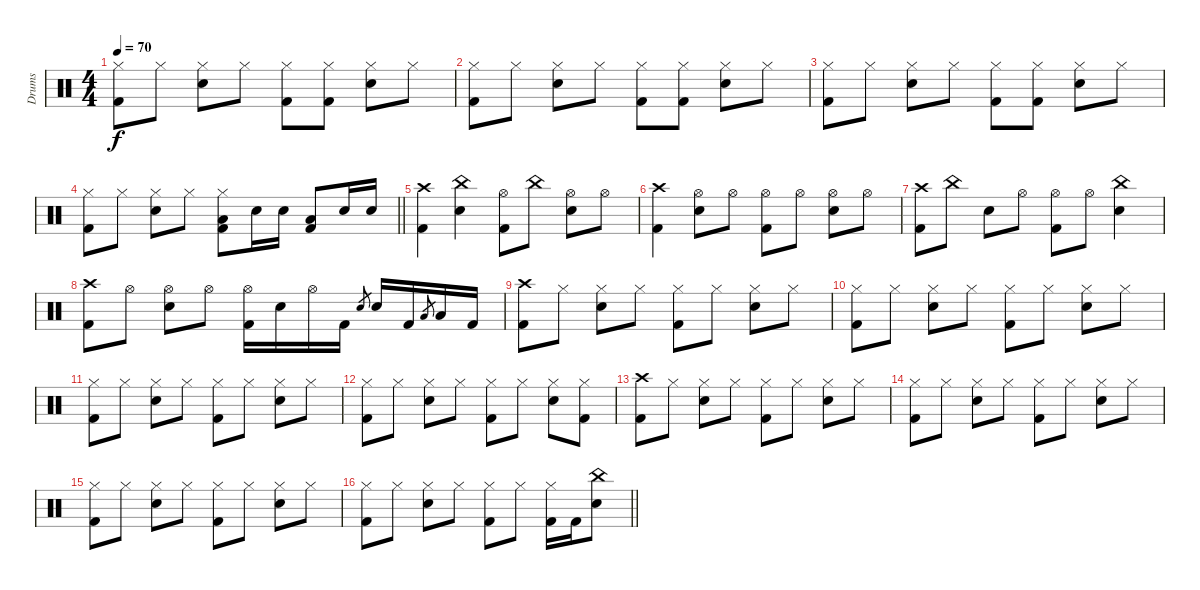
\track ("Drums" "Drums") {instrument percussion}
\staff {score}
\articulation defaults
\ts (4 4)
\tempo 70
\clef neutral
\ks c
("Hi-Hat (closed)" "Kick (hit) 2").8{dy f} "Hi-Hat (closed)".8 ("Hi-Hat (closed)" "Electric Snare (hit)").8 "Hi-Hat (closed)".8 ("Hi-Hat (closed)" "Kick (hit) 2").8 ("Hi-Hat (closed)" "Kick (hit) 2").8 ("Hi-Hat (closed)" "Electric Snare (hit)").8 "Hi-Hat (closed)".8 |
("Hi-Hat (closed)" "Kick (hit) 2").8 "Hi-Hat (closed)".8 ("Hi-Hat (closed)" "Electric Snare (hit)").8 "Hi-Hat (closed)".8 ("Hi-Hat (closed)" "Kick (hit) 2").8 ("Hi-Hat (closed)" "Kick (hit) 2").8 ("Hi-Hat (closed)" "Electric Snare (hit)").8 "Hi-Hat (closed)".8 |
("Hi-Hat (closed)" "Kick (hit) 2").8 "Hi-Hat (closed)".8 ("Hi-Hat (closed)" "Electric Snare (hit)").8 "Hi-Hat (closed)".8 ("Hi-Hat (closed)" "Kick (hit) 2").8 ("Hi-Hat (closed)" "Kick (hit) 2").8 ("Hi-Hat (closed)" "Electric Snare (hit)").8 "Hi-Hat (closed)".8 |
\barLineRight lightlight
("Hi-Hat (closed)" "Kick (hit) 2").8 "Hi-Hat (closed)".8 ("Hi-Hat (closed)" "Electric Snare (hit)").8 "Hi-Hat (closed)".8 ("Hi-Hat (closed)" "Low Floor Tom (hit)" "Kick (hit) 2").8 "Electric Snare (hit)".16 "Electric Snare (hit)".16 ("Low Floor Tom (hit)" "Kick (hit) 2").8 "Electric Snare (hit)".16 "Electric Snare (hit)".16 |
("Crash high (hit)" "Kick (hit) 2").4 ("China (hit)" "Electric Snare (hit)").4 ("Hi-Hat (open)" "Kick (hit) 2").8 "China (hit)".8 ("Hi-Hat (open)" "Electric Snare (hit)").8 "Hi-Hat (open)".8 |
("Crash high (hit)" "Kick (hit) 2").4 ("Hi-Hat (open)" "Electric Snare (hit)").8 "Hi-Hat (open)".8 ("Hi-Hat (open)" "Kick (hit) 2").8 "Hi-Hat (open)".8 ("Hi-Hat (open)" "Electric Snare (hit)").8 "Hi-Hat (open)".8 |
("Crash high (hit)" "Kick (hit) 2").8 "China (hit)".8 "Electric Snare (hit)".8 "Hi-Hat (open)".8 ("Hi-Hat (open)" "Kick (hit) 2").8 "Hi-Hat (open)".8 ("China (hit)" "Electric Snare (hit)").4 |
("Crash high (hit)" "Kick (hit) 2").8 "Hi-Hat (open)".8 ("Hi-Hat (open)" "Electric Snare (hit)").8 "Hi-Hat (open)".8 ("Hi-Hat (open)" "Kick (hit) 2").16 "Electric Snare (hit)".16 "Hi-Hat (open)".16 "Kick (hit) 2".16 "Electric Snare (hit)".8{gr} "Electric Snare (hit)".16 "Kick (hit) 2".16 "Low Tom (hit)".8{gr} "Low Tom (hit)".16 "Kick (hit) 2".16 |
("Crash high (hit)" "Kick (hit) 2").8 "Hi-Hat (closed)".8 ("Hi-Hat (closed)" "Electric Snare (hit)").8 "Hi-Hat (closed)".8 ("Hi-Hat (closed)" "Kick (hit) 2").8 "Hi-Hat (closed)".8 ("Hi-Hat (closed)" "Electric Snare (hit)").8 "Hi-Hat (closed)".8 |
("Hi-Hat (closed)" "Kick (hit) 2").8 "Hi-Hat (closed)".8 ("Hi-Hat (closed)" "Electric Snare (hit)").8 "Hi-Hat (closed)".8 ("Hi-Hat (closed)" "Kick (hit) 2").8 "Hi-Hat (closed)".8 ("Hi-Hat (closed)" "Electric Snare (hit)").8 "Hi-Hat (closed)".8 |
("Hi-Hat (closed)" "Kick (hit) 2").8 "Hi-Hat (closed)".8 ("Hi-Hat (closed)" "Electric Snare (hit)").8 "Hi-Hat (closed)".8 ("Hi-Hat (closed)" "Kick (hit) 2").8 "Hi-Hat (closed)".8 ("Hi-Hat (closed)" "Electric Snare (hit)").8 "Hi-Hat (closed)".8 |
("Hi-Hat (closed)" "Kick (hit) 2").8 "Hi-Hat (closed)".8 ("Hi-Hat (closed)" "Electric Snare (hit)").8 "Hi-Hat (closed)".8 ("Hi-Hat (closed)" "Kick (hit) 2").8 "Hi-Hat (closed)".8 ("Hi-Hat (closed)" "Electric Snare (hit)").8 ("Hi-Hat (closed)" "Kick (hit) 2").8 |
("Crash high (hit)" "Kick (hit) 2").8 "Hi-Hat (closed)".8 ("Hi-Hat (closed)" "Electric Snare (hit)").8 "Hi-Hat (closed)".8 ("Hi-Hat (closed)" "Kick (hit) 2").8 "Hi-Hat (closed)".8 ("Hi-Hat (closed)" "Electric Snare (hit)").8 "Hi-Hat (closed)".8 |
("Hi-Hat (closed)" "Kick (hit) 2").8 "Hi-Hat (closed)".8 ("Hi-Hat (closed)" "Electric Snare (hit)").8 "Hi-Hat (closed)".8 ("Hi-Hat (closed)" "Kick (hit) 2").8 "Hi-Hat (closed)".8 ("Hi-Hat (closed)" "Electric Snare (hit)").8 "Hi-Hat (closed)".8 |
("Hi-Hat (closed)" "Kick (hit) 2").8 "Hi-Hat (closed)".8 ("Hi-Hat (closed)" "Electric Snare (hit)").8 "Hi-Hat (closed)".8 ("Hi-Hat (closed)" "Kick (hit) 2").8 "Hi-Hat (closed)".8 ("Hi-Hat (closed)" "Electric Snare (hit)").8 "Hi-Hat (closed)".8 |
\barLineRight lightlight
("Hi-Hat (closed)" "Kick (hit) 2").8 "Hi-Hat (closed)".8 ("Hi-Hat (closed)" "Electric Snare (hit)").8 "Hi-Hat (closed)".8 ("Hi-Hat (closed)" "Kick (hit) 2").8 "Hi-Hat (closed)".8 ("Hi-Hat (closed)" "Kick (hit) 2").16 "Kick (hit) 2".16 ("China (hit)" "Electric Snare (hit)").8
